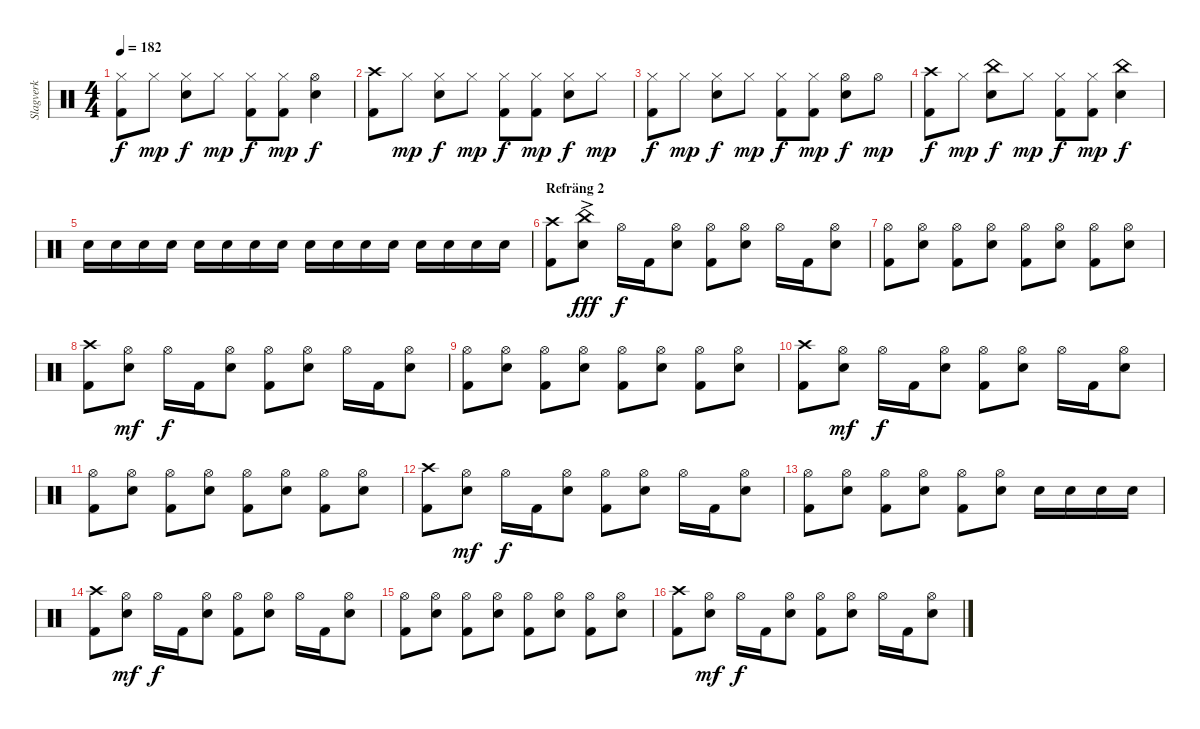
\track ("Slagverk" "Slagverk") {instrument percussion}
\staff {score}
\articulation defaults
\ts (4 4)
\tempo 182
\clef neutral
\ks c
("Hi-Hat (closed)" "Kick (hit) 2").8{dy f} "Hi-Hat (closed)".8{dy mp} ("Hi-Hat (closed)" "Electric Snare (hit)").8{dy f} "Hi-Hat (closed)".8{dy mp} ("Hi-Hat (closed)" "Kick (hit) 2").8{dy f} ("Hi-Hat (closed)" "Kick (hit) 2").8{dy mp} ("Hi-Hat (open)" "Electric Snare (hit)").4{dy f} |
("Crash high (hit)" "Kick (hit) 2").8 "Hi-Hat (closed)".8{dy mp} ("Hi-Hat (closed)" "Electric Snare (hit)").8{dy f} "Hi-Hat (closed)".8{dy mp} ("Hi-Hat (closed)" "Kick (hit) 2").8{dy f} ("Hi-Hat (closed)" "Kick (hit) 2").8{dy mp} ("Hi-Hat (closed)" "Electric Snare (hit)").8{dy f} "Hi-Hat (closed)".8{dy mp} |
("Hi-Hat (closed)" "Kick (hit) 2").8{dy f} "Hi-Hat (closed)".8{dy mp} ("Hi-Hat (closed)" "Electric Snare (hit)").8{dy f} "Hi-Hat (closed)".8{dy mp} ("Hi-Hat (closed)" "Kick (hit) 2").8{dy f} ("Hi-Hat (closed)" "Kick (hit) 2").8{dy mp} ("Hi-Hat (open)" "Electric Snare (hit)").8{dy f} "Hi-Hat (open)".8{dy mp} |
("Crash high (hit)" "Kick (hit) 2").8{dy f} "Hi-Hat (closed)".8{dy mp} ("China (hit)" "Electric Snare (hit)").8{dy f} "Hi-Hat (closed)".8{dy mp} ("Hi-Hat (closed)" "Kick (hit) 2").8{dy f} ("Hi-Hat (closed)" "Kick (hit) 2").8{dy mp} ("China (hit)" "Electric Snare (hit)").4{dy f} |
"Electric Snare (hit)".16 "Electric Snare (hit)".16 "Electric Snare (hit)".16 "Electric Snare (hit)".16 "Electric Snare (hit)".16 "Electric Snare (hit)".16 "Electric Snare (hit)".16 "Electric Snare (hit)".16 "Electric Snare (hit)".16 "Electric Snare (hit)".16 "Electric Snare (hit)".16 "Electric Snare (hit)".16 "Electric Snare (hit)".16 "Electric Snare (hit)".16 "Electric Snare (hit)".16 "Electric Snare (hit)".16 |
\section ("" "Refräng 2")
("Crash high (hit)" "Kick (hit) 2").8 ("China (hit)" "Electric Snare (hit)"{ac}).8{dy fff} "Hi-Hat (open)".16{dy f} "Kick (hit) 2".16 ("Hi-Hat (open)" "Electric Snare (hit)").8 ("Hi-Hat (open)" "Kick (hit) 2").8 ("Hi-Hat (open)" "Electric Snare (hit)").8 "Hi-Hat (open)".16 "Kick (hit) 2".16 ("Hi-Hat (open)" "Electric Snare (hit)").8 |
("Hi-Hat (open)" "Kick (hit) 2").8 ("Hi-Hat (open)" "Electric Snare (hit)").8 ("Hi-Hat (open)" "Kick (hit) 2").8 ("Hi-Hat (open)" "Electric Snare (hit)").8 ("Hi-Hat (open)" "Kick (hit) 2").8 ("Hi-Hat (open)" "Electric Snare (hit)").8 ("Hi-Hat (open)" "Kick (hit) 2").8 ("Hi-Hat (open)" "Electric Snare (hit)").8 |
("Crash high (hit)" "Kick (hit) 2").8 ("Hi-Hat (open)" "Electric Snare (hit)").8{dy mf} "Hi-Hat (open)".16{dy f} "Kick (hit) 2".16 ("Hi-Hat (open)" "Electric Snare (hit)").8 ("Hi-Hat (open)" "Kick (hit) 2").8 ("Hi-Hat (open)" "Electric Snare (hit)").8 "Hi-Hat (open)".16 "Kick (hit) 2".16 ("Hi-Hat (open)" "Electric Snare (hit)").8 |
("Hi-Hat (open)" "Kick (hit) 2").8 ("Hi-Hat (open)" "Electric Snare (hit)").8 ("Hi-Hat (open)" "Kick (hit) 2").8 ("Hi-Hat (open)" "Electric Snare (hit)").8 ("Hi-Hat (open)" "Kick (hit) 2").8 ("Hi-Hat (open)" "Electric Snare (hit)").8 ("Hi-Hat (open)" "Kick (hit) 2").8 ("Hi-Hat (open)" "Electric Snare (hit)").8 |
("Crash high (hit)" "Kick (hit) 2").8 ("Hi-Hat (open)" "Electric Snare (hit)").8{dy mf} "Hi-Hat (open)".16{dy f} "Kick (hit) 2".16 ("Hi-Hat (open)" "Electric Snare (hit)").8 ("Hi-Hat (open)" "Kick (hit) 2").8 ("Hi-Hat (open)" "Electric Snare (hit)").8 "Hi-Hat (open)".16 "Kick (hit) 2".16 ("Hi-Hat (open)" "Electric Snare (hit)").8 |
("Hi-Hat (open)" "Kick (hit) 2").8 ("Hi-Hat (open)" "Electric Snare (hit)").8 ("Hi-Hat (open)" "Kick (hit) 2").8 ("Hi-Hat (open)" "Electric Snare (hit)").8 ("Hi-Hat (open)" "Kick (hit) 2").8 ("Hi-Hat (open)" "Electric Snare (hit)").8 ("Hi-Hat (open)" "Kick (hit) 2").8 ("Hi-Hat (open)" "Electric Snare (hit)").8 |
("Crash high (hit)" "Kick (hit) 2").8 ("Hi-Hat (open)" "Electric Snare (hit)").8{dy mf} "Hi-Hat (open)".16{dy f} "Kick (hit) 2".16 ("Hi-Hat (open)" "Electric Snare (hit)").8 ("Hi-Hat (open)" "Kick (hit) 2").8 ("Hi-Hat (open)" "Electric Snare (hit)").8 "Hi-Hat (open)".16 "Kick (hit) 2".16 ("Hi-Hat (open)" "Electric Snare (hit)").8 |
("Hi-Hat (open)" "Kick (hit) 2").8 ("Hi-Hat (open)" "Electric Snare (hit)").8 ("Hi-Hat (open)" "Kick (hit) 2").8 ("Hi-Hat (open)" "Electric Snare (hit)").8 ("Hi-Hat (open)" "Kick (hit) 2").8 ("Hi-Hat (open)" "Electric Snare (hit)").8 "Electric Snare (hit)".16 "Electric Snare (hit)".16 "Electric Snare (hit)".16 "Electric Snare (hit)".16 |
("Crash high (hit)" "Kick (hit) 2").8 ("Hi-Hat (open)" "Electric Snare (hit)").8{dy mf} "Hi-Hat (open)".16{dy f} "Kick (hit) 2".16 ("Hi-Hat (open)" "Electric Snare (hit)").8 ("Hi-Hat (open)" "Kick (hit) 2").8 ("Hi-Hat (open)" "Electric Snare (hit)").8 "Hi-Hat (open)".16 "Kick (hit) 2".16 ("Hi-Hat (open)" "Electric Snare (hit)").8 |
("Hi-Hat (open)" "Kick (hit) 2").8 ("Hi-Hat (open)" "Electric Snare (hit)").8 ("Hi-Hat (open)" "Kick (hit) 2").8 ("Hi-Hat (open)" "Electric Snare (hit)").8 ("Hi-Hat (open)" "Kick (hit) 2").8 ("Hi-Hat (open)" "Electric Snare (hit)").8 ("Hi-Hat (open)" "Kick (hit) 2").8 ("Hi-Hat (open)" "Electric Snare (hit)").8 |
("Crash high (hit)" "Kick (hit) 2").8 ("Hi-Hat (open)" "Electric Snare (hit)").8{dy mf} "Hi-Hat (open)".16{dy f} "Kick (hit) 2".16 ("Hi-Hat (open)" "Electric Snare (hit)").8 ("Hi-Hat (open)" "Kick (hit) 2").8 ("Hi-Hat (open)" "Electric Snare (hit)").8 "Hi-Hat (open)".16 "Kick (hit) 2".16 ("Hi-Hat (open)" "Electric Snare (hit)").8
